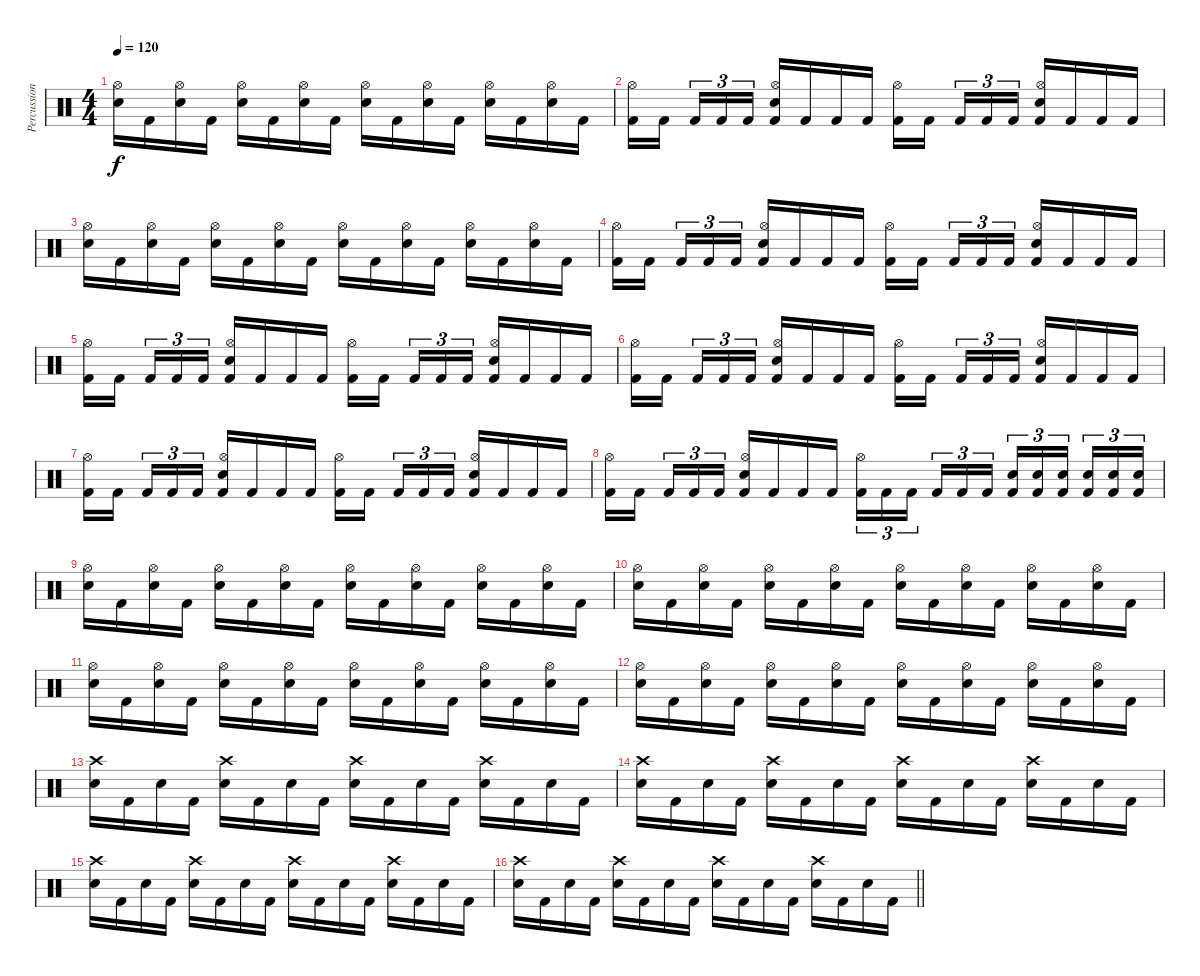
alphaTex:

\track ("Percussion" "Percussion") {instrument percussion}
\staff {score}
\articulation defaults
\ts (4 4)
\tempo 120
\clef neutral
\ks c
("Electric Snare (hit)" "Hi-Hat (open)").16{dy f} "Kick (hit) 2".16 ("Electric Snare (hit)" "Hi-Hat (open)").16 "Kick (hit) 2".16 ("Electric Snare (hit)" "Hi-Hat (open)").16 "Kick (hit) 2".16 ("Electric Snare (hit)" "Hi-Hat (open)").16 "Kick (hit) 2".16 ("Electric Snare (hit)" "Hi-Hat (open)").16 "Kick (hit) 2".16 ("Electric Snare (hit)" "Hi-Hat (open)").16 "Kick (hit) 2".16 ("Electric Snare (hit)" "Hi-Hat (open)").16 "Kick (hit) 2".16 ("Electric Snare (hit)" "Hi-Hat (open)").16 "Kick (hit) 2".16 |
("Kick (hit) 2" "Hi-Hat (open)").16 "Kick (hit) 2".16{beam splitsecondary} "Kick (hit) 2".16{tu (3 2)} "Kick (hit) 2".16{tu (3 2)} "Kick (hit) 2".16{tu (3 2)} ("Kick (hit) 2" "Hi-Hat (open)" "Electric Snare (hit)").16 "Kick (hit) 2".16 "Kick (hit) 2".16 "Kick (hit) 2".16 ("Kick (hit) 2" "Hi-Hat (open)").16 "Kick (hit) 2".16{beam splitsecondary} "Kick (hit) 2".16{tu (3 2)} "Kick (hit) 2".16{tu (3 2)} "Kick (hit) 2".16{tu (3 2)} ("Kick (hit) 2" "Hi-Hat (open)" "Electric Snare (hit)").16 "Kick (hit) 2".16 "Kick (hit) 2".16 "Kick (hit) 2".16 |
("Electric Snare (hit)" "Hi-Hat (open)").16 "Kick (hit) 2".16 ("Electric Snare (hit)" "Hi-Hat (open)").16 "Kick (hit) 2".16 ("Electric Snare (hit)" "Hi-Hat (open)").16 "Kick (hit) 2".16 ("Electric Snare (hit)" "Hi-Hat (open)").16 "Kick (hit) 2".16 ("Electric Snare (hit)" "Hi-Hat (open)").16 "Kick (hit) 2".16 ("Electric Snare (hit)" "Hi-Hat (open)").16 "Kick (hit) 2".16 ("Electric Snare (hit)" "Hi-Hat (open)").16 "Kick (hit) 2".16 ("Electric Snare (hit)" "Hi-Hat (open)").16 "Kick (hit) 2".16 |
("Kick (hit) 2" "Hi-Hat (open)").16 "Kick (hit) 2".16{beam splitsecondary} "Kick (hit) 2".16{tu (3 2)} "Kick (hit) 2".16{tu (3 2)} "Kick (hit) 2".16{tu (3 2)} ("Kick (hit) 2" "Hi-Hat (open)" "Electric Snare (hit)").16 "Kick (hit) 2".16 "Kick (hit) 2".16 "Kick (hit) 2".16 ("Kick (hit) 2" "Hi-Hat (open)").16 "Kick (hit) 2".16{beam splitsecondary} "Kick (hit) 2".16{tu (3 2)} "Kick (hit) 2".16{tu (3 2)} "Kick (hit) 2".16{tu (3 2)} ("Kick (hit) 2" "Hi-Hat (open)" "Electric Snare (hit)").16 "Kick (hit) 2".16 "Kick (hit) 2".16 "Kick (hit) 2".16 |
("Kick (hit) 2" "Hi-Hat (open)").16 "Kick (hit) 2".16{beam splitsecondary} "Kick (hit) 2".16{tu (3 2)} "Kick (hit) 2".16{tu (3 2)} "Kick (hit) 2".16{tu (3 2)} ("Kick (hit) 2" "Hi-Hat (open)" "Electric Snare (hit)").16 "Kick (hit) 2".16 "Kick (hit) 2".16 "Kick (hit) 2".16 ("Kick (hit) 2" "Hi-Hat (open)").16 "Kick (hit) 2".16{beam splitsecondary} "Kick (hit) 2".16{tu (3 2)} "Kick (hit) 2".16{tu (3 2)} "Kick (hit) 2".16{tu (3 2)} ("Kick (hit) 2" "Hi-Hat (open)" "Electric Snare (hit)").16 "Kick (hit) 2".16 "Kick (hit) 2".16 "Kick (hit) 2".16 |
("Kick (hit) 2" "Hi-Hat (open)").16 "Kick (hit) 2".16{beam splitsecondary} "Kick (hit) 2".16{tu (3 2)} "Kick (hit) 2".16{tu (3 2)} "Kick (hit) 2".16{tu (3 2)} ("Kick (hit) 2" "Hi-Hat (open)" "Electric Snare (hit)").16 "Kick (hit) 2".16 "Kick (hit) 2".16 "Kick (hit) 2".16 ("Kick (hit) 2" "Hi-Hat (open)").16 "Kick (hit) 2".16{beam splitsecondary} "Kick (hit) 2".16{tu (3 2)} "Kick (hit) 2".16{tu (3 2)} "Kick (hit) 2".16{tu (3 2)} ("Kick (hit) 2" "Hi-Hat (open)" "Electric Snare (hit)").16 "Kick (hit) 2".16 "Kick (hit) 2".16 "Kick (hit) 2".16 |
("Kick (hit) 2" "Hi-Hat (open)").16 "Kick (hit) 2".16{beam splitsecondary} "Kick (hit) 2".16{tu (3 2)} "Kick (hit) 2".16{tu (3 2)} "Kick (hit) 2".16{tu (3 2)} ("Kick (hit) 2" "Hi-Hat (open)" "Electric Snare (hit)").16 "Kick (hit) 2".16 "Kick (hit) 2".16 "Kick (hit) 2".16 ("Kick (hit) 2" "Hi-Hat (open)").16 "Kick (hit) 2".16{beam splitsecondary} "Kick (hit) 2".16{tu (3 2)} "Kick (hit) 2".16{tu (3 2)} "Kick (hit) 2".16{tu (3 2)} ("Kick (hit) 2" "Hi-Hat (open)" "Electric Snare (hit)").16 "Kick (hit) 2".16 "Kick (hit) 2".16 "Kick (hit) 2".16 |
("Kick (hit) 2" "Hi-Hat (open)").16 "Kick (hit) 2".16{beam splitsecondary} "Kick (hit) 2".16{tu (3 2)} "Kick (hit) 2".16{tu (3 2)} "Kick (hit) 2".16{tu (3 2)} ("Kick (hit) 2" "Hi-Hat (open)" "Electric Snare (hit)").16 "Kick (hit) 2".16 "Kick (hit) 2".16 "Kick (hit) 2".16 ("Kick (hit) 2" "Hi-Hat (open)").16{tu (3 2)} "Kick (hit) 2".16{tu (3 2)} "Kick (hit) 2".16{tu (3 2) beam splitsecondary} "Kick (hit) 2".16{tu (3 2)} "Kick (hit) 2".16{tu (3 2)} "Kick (hit) 2".16{tu (3 2)} ("Kick (hit) 2" "Electric Snare (hit)").16{tu (3 2)} ("Kick (hit) 2" "Electric Snare (hit)").16{tu (3 2)} ("Kick (hit) 2" "Electric Snare (hit)").16{tu (3 2) beam splitsecondary} ("Kick (hit) 2" "Electric Snare (hit)").16{tu (3 2)} ("Kick (hit) 2" "Electric Snare (hit)").16{tu (3 2)} ("Kick (hit) 2" "Electric Snare (hit)").16{tu (3 2)} |
("Electric Snare (hit)" "Hi-Hat (open)").16 "Kick (hit) 2".16 ("Electric Snare (hit)" "Hi-Hat (open)").16 "Kick (hit) 2".16 ("Electric Snare (hit)" "Hi-Hat (open)").16 "Kick (hit) 2".16 ("Electric Snare (hit)" "Hi-Hat (open)").16 "Kick (hit) 2".16 ("Electric Snare (hit)" "Hi-Hat (open)").16 "Kick (hit) 2".16 ("Electric Snare (hit)" "Hi-Hat (open)").16 "Kick (hit) 2".16 ("Electric Snare (hit)" "Hi-Hat (open)").16 "Kick (hit) 2".16 ("Electric Snare (hit)" "Hi-Hat (open)").16 "Kick (hit) 2".16 |
("Electric Snare (hit)" "Hi-Hat (open)").16 "Kick (hit) 2".16 ("Electric Snare (hit)" "Hi-Hat (open)").16 "Kick (hit) 2".16 ("Electric Snare (hit)" "Hi-Hat (open)").16 "Kick (hit) 2".16 ("Electric Snare (hit)" "Hi-Hat (open)").16 "Kick (hit) 2".16 ("Electric Snare (hit)" "Hi-Hat (open)").16 "Kick (hit) 2".16 ("Electric Snare (hit)" "Hi-Hat (open)").16 "Kick (hit) 2".16 ("Electric Snare (hit)" "Hi-Hat (open)").16 "Kick (hit) 2".16 ("Electric Snare (hit)" "Hi-Hat (open)").16 "Kick (hit) 2".16 |
("Electric Snare (hit)" "Hi-Hat (open)").16 "Kick (hit) 2".16 ("Electric Snare (hit)" "Hi-Hat (open)").16 "Kick (hit) 2".16 ("Electric Snare (hit)" "Hi-Hat (open)").16 "Kick (hit) 2".16 ("Electric Snare (hit)" "Hi-Hat (open)").16 "Kick (hit) 2".16 ("Electric Snare (hit)" "Hi-Hat (open)").16 "Kick (hit) 2".16 ("Electric Snare (hit)" "Hi-Hat (open)").16 "Kick (hit) 2".16 ("Electric Snare (hit)" "Hi-Hat (open)").16 "Kick (hit) 2".16 ("Electric Snare (hit)" "Hi-Hat (open)").16 "Kick (hit) 2".16 |
("Electric Snare (hit)" "Hi-Hat (open)").16 "Kick (hit) 2".16 ("Electric Snare (hit)" "Hi-Hat (open)").16 "Kick (hit) 2".16 ("Electric Snare (hit)" "Hi-Hat (open)").16 "Kick (hit) 2".16 ("Electric Snare (hit)" "Hi-Hat (open)").16 "Kick (hit) 2".16 ("Electric Snare (hit)" "Hi-Hat (open)").16 "Kick (hit) 2".16 ("Electric Snare (hit)" "Hi-Hat (open)").16 "Kick (hit) 2".16 ("Electric Snare (hit)" "Hi-Hat (open)").16 "Kick (hit) 2".16 ("Electric Snare (hit)" "Hi-Hat (open)").16 "Kick (hit) 2".16 |
("Electric Snare (hit)" "Crash high (hit)").16 "Kick (hit) 2".16 "Electric Snare (hit)".16 "Kick (hit) 2".16 ("Electric Snare (hit)" "Crash high (hit)").16 "Kick (hit) 2".16 "Electric Snare (hit)".16 "Kick (hit) 2".16 ("Electric Snare (hit)" "Crash high (hit)").16 "Kick (hit) 2".16 "Electric Snare (hit)".16 "Kick (hit) 2".16 ("Electric Snare (hit)" "Crash high (hit)").16 "Kick (hit) 2".16 "Electric Snare (hit)".16 "Kick (hit) 2".16 |
("Electric Snare (hit)" "Crash high (hit)").16 "Kick (hit) 2".16 "Electric Snare (hit)".16 "Kick (hit) 2".16 ("Electric Snare (hit)" "Crash high (hit)").16 "Kick (hit) 2".16 "Electric Snare (hit)".16 "Kick (hit) 2".16 ("Electric Snare (hit)" "Crash high (hit)").16 "Kick (hit) 2".16 "Electric Snare (hit)".16 "Kick (hit) 2".16 ("Electric Snare (hit)" "Crash high (hit)").16 "Kick (hit) 2".16 "Electric Snare (hit)".16 "Kick (hit) 2".16 |
("Electric Snare (hit)" "Crash high (hit)").16 "Kick (hit) 2".16 "Electric Snare (hit)".16 "Kick (hit) 2".16 ("Electric Snare (hit)" "Crash high (hit)").16 "Kick (hit) 2".16 "Electric Snare (hit)".16 "Kick (hit) 2".16 ("Electric Snare (hit)" "Crash high (hit)").16 "Kick (hit) 2".16 "Electric Snare (hit)".16 "Kick (hit) 2".16 ("Electric Snare (hit)" "Crash high (hit)").16 "Kick (hit) 2".16 "Electric Snare (hit)".16 "Kick (hit) 2".16 |
\barLineRight lightlight
("Electric Snare (hit)" "Crash high (hit)").16 "Kick (hit) 2".16 "Electric Snare (hit)".16 "Kick (hit) 2".16 ("Electric Snare (hit)" "Crash high (hit)").16 "Kick (hit) 2".16 "Electric Snare (hit)".16 "Kick (hit) 2".16 ("Electric Snare (hit)" "Crash high (hit)").16 "Kick (hit) 2".16 "Electric Snare (hit)".16 "Kick (hit) 2".16 ("Electric Snare (hit)" "Crash high (hit)").16 "Kick (hit) 2".16 "Electric Snare (hit)".16 "Kick (hit) 2".16
